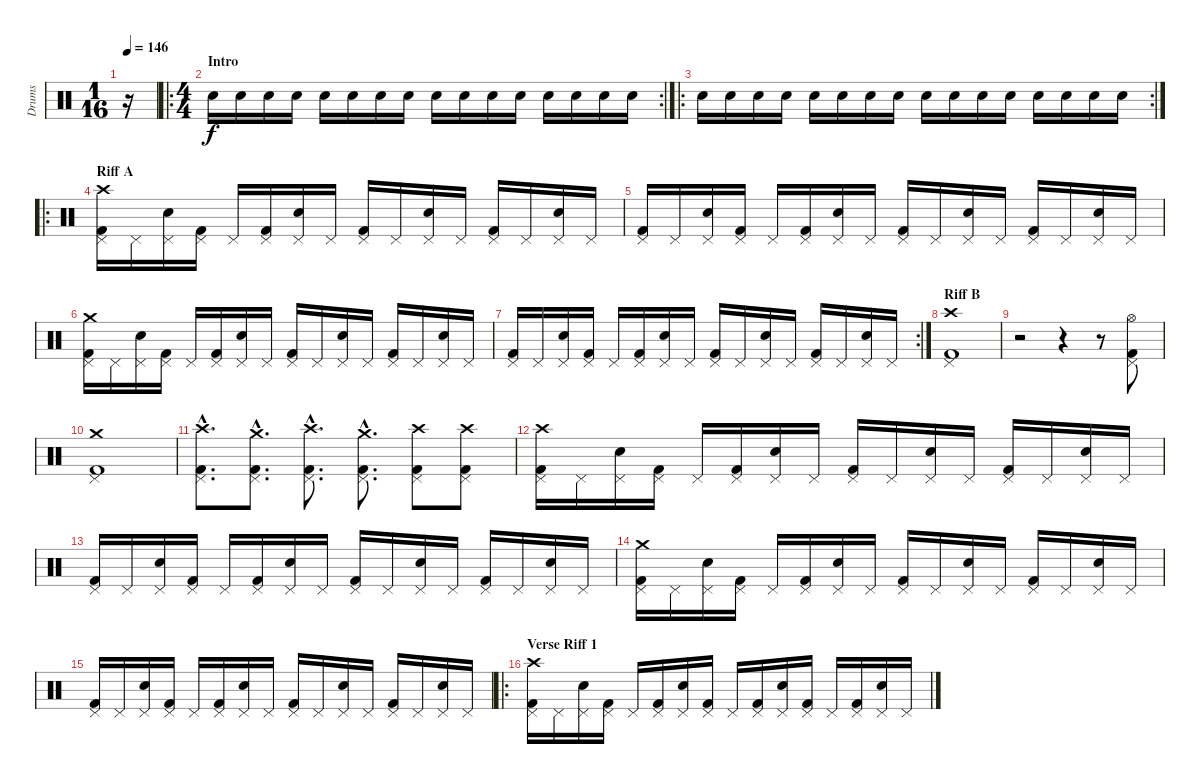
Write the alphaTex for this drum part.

\track ("Drums" "Drums") {instrument percussion}
\staff {score}
\articulation defaults
\ts (1 16)
\tempo 146
\clef neutral
\ks c
r.16{dy f} |
\ro
\rc 2
\ts (4 4)
\section ("" "Intro")
"Snare (hit) 2".16 "Snare (hit) 2".16 "Snare (hit) 2".16 "Snare (hit) 2".16 "Snare (hit) 2".16 "Snare (hit) 2".16 "Snare (hit) 2".16 "Snare (hit) 2".16 "Snare (hit) 2".16 "Snare (hit) 2".16 "Snare (hit) 2".16 "Snare (hit) 2".16 "Snare (hit) 2".16 "Snare (hit) 2".16 "Snare (hit) 2".16 "Snare (hit) 2".16 |
\ro
\rc 2 "Snare (hit) 2".16 "Snare (hit) 2".16 "Snare (hit) 2".16 "Snare (hit) 2".16 "Snare (hit) 2".16 "Snare (hit) 2".16 "Snare (hit) 2".16 "Snare (hit) 2".16 "Snare (hit) 2".16 "Snare (hit) 2".16 "Snare (hit) 2".16 "Snare (hit) 2".16 "Snare (hit) 2".16 "Snare (hit) 2".16 "Snare (hit) 2".16 "Snare (hit) 2".16
|
\ro
\section ("" "Riff A")
("Kick (hit) 2" "Pedal Hi-Hat (hit)" "Crash high (hit)").16 "Pedal Hi-Hat (hit)".16 ("Snare (hit) 2" "Pedal Hi-Hat (hit)").16 ("Kick (hit) 2" "Pedal Hi-Hat (hit)").16 "Pedal Hi-Hat (hit)".16 ("Kick (hit) 2" "Pedal Hi-Hat (hit)").16 ("Snare (hit) 2" "Pedal Hi-Hat (hit)").16 "Pedal Hi-Hat (hit)".16 ("Kick (hit) 2" "Pedal Hi-Hat (hit)").16 "Pedal Hi-Hat (hit)".16 ("Snare (hit) 2" "Pedal Hi-Hat (hit)").16 "Pedal Hi-Hat (hit)".16 ("Kick (hit) 2" "Pedal Hi-Hat (hit)").16 "Pedal Hi-Hat (hit)".16 ("Snare (hit) 2" "Pedal Hi-Hat (hit)").16 "Pedal Hi-Hat (hit)".16 |
("Kick (hit) 2" "Pedal Hi-Hat (hit)").16 "Pedal Hi-Hat (hit)".16 ("Snare (hit) 2" "Pedal Hi-Hat (hit)").16 ("Kick (hit) 2" "Pedal Hi-Hat (hit)").16 "Pedal Hi-Hat (hit)".16 ("Kick (hit) 2" "Pedal Hi-Hat (hit)").16 ("Snare (hit) 2" "Pedal Hi-Hat (hit)").16 "Pedal Hi-Hat (hit)".16 ("Kick (hit) 2" "Pedal Hi-Hat (hit)").16 "Pedal Hi-Hat (hit)".16 ("Snare (hit) 2" "Pedal Hi-Hat (hit)").16 "Pedal Hi-Hat (hit)".16 ("Kick (hit) 2" "Pedal Hi-Hat (hit)").16 "Pedal Hi-Hat (hit)".16 ("Snare (hit) 2" "Pedal Hi-Hat (hit)").16 "Pedal Hi-Hat (hit)".16 |
("Kick (hit) 2" "Pedal Hi-Hat (hit)" "Crash medium (hit)").16 "Pedal Hi-Hat (hit)".16 ("Snare (hit) 2" "Pedal Hi-Hat (hit)").16 ("Kick (hit) 2" "Pedal Hi-Hat (hit)").16 "Pedal Hi-Hat (hit)".16 ("Kick (hit) 2" "Pedal Hi-Hat (hit)").16 ("Snare (hit) 2" "Pedal Hi-Hat (hit)").16 "Pedal Hi-Hat (hit)".16 ("Kick (hit) 2" "Pedal Hi-Hat (hit)").16 "Pedal Hi-Hat (hit)".16 ("Snare (hit) 2" "Pedal Hi-Hat (hit)").16 "Pedal Hi-Hat (hit)".16 ("Kick (hit) 2" "Pedal Hi-Hat (hit)").16 "Pedal Hi-Hat (hit)".16 ("Snare (hit) 2" "Pedal Hi-Hat (hit)").16 "Pedal Hi-Hat (hit)".16 |
\rc 2
("Kick (hit) 2" "Pedal Hi-Hat (hit)").16 "Pedal Hi-Hat (hit)".16 ("Snare (hit) 2" "Pedal Hi-Hat (hit)").16 ("Kick (hit) 2" "Pedal Hi-Hat (hit)").16 "Pedal Hi-Hat (hit)".16 ("Kick (hit) 2" "Pedal Hi-Hat (hit)").16 ("Snare (hit) 2" "Pedal Hi-Hat (hit)").16 "Pedal Hi-Hat (hit)".16 ("Kick (hit) 2" "Pedal Hi-Hat (hit)").16 "Pedal Hi-Hat (hit)".16 ("Snare (hit) 2" "Pedal Hi-Hat (hit)").16 "Pedal Hi-Hat (hit)".16 ("Kick (hit) 2" "Pedal Hi-Hat (hit)").16 "Pedal Hi-Hat (hit)".16 ("Snare (hit) 2" "Pedal Hi-Hat (hit)").16 "Pedal Hi-Hat (hit)".16 |
\section ("" "Riff B")
("Kick (hit) 2" "Pedal Hi-Hat (hit)" "Crash high (hit)").1 |
r.2 r.4 r.8 ("Kick (hit) 2" "Pedal Hi-Hat (hit)" "Hi-Hat (open)").8 |
("Kick (hit) 2" "Pedal Hi-Hat (hit)" "Crash medium (hit)").1 |
("Kick (hit) 2"{hac} "Pedal Hi-Hat (hit)"{hac} "Crash high (hit)"{hac}).8{d} ("Kick (hit) 2"{hac} "Pedal Hi-Hat (hit)"{hac} "Crash medium (hit)"{hac}).8{d} ("Kick (hit) 2"{hac} "Pedal Hi-Hat (hit)"{hac} "Crash high (hit)"{hac}).8{d} ("Kick (hit) 2"{hac} "Pedal Hi-Hat (hit)"{hac} "Crash medium (hit)"{hac}).8{d} ("Kick (hit) 2" "Pedal Hi-Hat (hit)" "Crash high (hit)").8 ("Kick (hit) 2" "Pedal Hi-Hat (hit)" "Crash high (hit)").8 |
("Kick (hit) 2" "Pedal Hi-Hat (hit)" "Crash high (hit)").16 "Pedal Hi-Hat (hit)".16 ("Snare (hit) 2" "Pedal Hi-Hat (hit)").16 ("Kick (hit) 2" "Pedal Hi-Hat (hit)").16 "Pedal Hi-Hat (hit)".16 ("Kick (hit) 2" "Pedal Hi-Hat (hit)").16 ("Snare (hit) 2" "Pedal Hi-Hat (hit)").16 "Pedal Hi-Hat (hit)".16 ("Kick (hit) 2" "Pedal Hi-Hat (hit)").16 "Pedal Hi-Hat (hit)".16 ("Snare (hit) 2" "Pedal Hi-Hat (hit)").16 "Pedal Hi-Hat (hit)".16 ("Kick (hit) 2" "Pedal Hi-Hat (hit)").16 "Pedal Hi-Hat (hit)".16 ("Snare (hit) 2" "Pedal Hi-Hat (hit)").16 "Pedal Hi-Hat (hit)".16 |
("Kick (hit) 2" "Pedal Hi-Hat (hit)").16 "Pedal Hi-Hat (hit)".16 ("Snare (hit) 2" "Pedal Hi-Hat (hit)").16 ("Kick (hit) 2" "Pedal Hi-Hat (hit)").16 "Pedal Hi-Hat (hit)".16 ("Kick (hit) 2" "Pedal Hi-Hat (hit)").16 ("Snare (hit) 2" "Pedal Hi-Hat (hit)").16 "Pedal Hi-Hat (hit)".16 ("Kick (hit) 2" "Pedal Hi-Hat (hit)").16 "Pedal Hi-Hat (hit)".16 ("Snare (hit) 2" "Pedal Hi-Hat (hit)").16 "Pedal Hi-Hat (hit)".16 ("Kick (hit) 2" "Pedal Hi-Hat (hit)").16 "Pedal Hi-Hat (hit)".16 ("Snare (hit) 2" "Pedal Hi-Hat (hit)").16 "Pedal Hi-Hat (hit)".16 |
("Kick (hit) 2" "Pedal Hi-Hat (hit)" "Crash medium (hit)").16 "Pedal Hi-Hat (hit)".16 ("Snare (hit) 2" "Pedal Hi-Hat (hit)").16 ("Kick (hit) 2" "Pedal Hi-Hat (hit)").16 "Pedal Hi-Hat (hit)".16 ("Kick (hit) 2" "Pedal Hi-Hat (hit)").16 ("Snare (hit) 2" "Pedal Hi-Hat (hit)").16 "Pedal Hi-Hat (hit)".16 ("Kick (hit) 2" "Pedal Hi-Hat (hit)").16 "Pedal Hi-Hat (hit)".16 ("Snare (hit) 2" "Pedal Hi-Hat (hit)").16 "Pedal Hi-Hat (hit)".16 ("Kick (hit) 2" "Pedal Hi-Hat (hit)").16 "Pedal Hi-Hat (hit)".16 ("Snare (hit) 2" "Pedal Hi-Hat (hit)").16 "Pedal Hi-Hat (hit)".16 |
("Kick (hit) 2" "Pedal Hi-Hat (hit)").16 "Pedal Hi-Hat (hit)".16 ("Snare (hit) 2" "Pedal Hi-Hat (hit)").16 ("Kick (hit) 2" "Pedal Hi-Hat (hit)").16 "Pedal Hi-Hat (hit)".16 ("Kick (hit) 2" "Pedal Hi-Hat (hit)").16 ("Snare (hit) 2" "Pedal Hi-Hat (hit)").16 "Pedal Hi-Hat (hit)".16 ("Kick (hit) 2" "Pedal Hi-Hat (hit)").16 "Pedal Hi-Hat (hit)".16 ("Snare (hit) 2" "Pedal Hi-Hat (hit)").16 "Pedal Hi-Hat (hit)".16 ("Kick (hit) 2" "Pedal Hi-Hat (hit)").16 "Pedal Hi-Hat (hit)".16 ("Snare (hit) 2" "Pedal Hi-Hat (hit)").16 "Pedal Hi-Hat (hit)".16 |
\ro
\section ("" "Verse Riff 1")
("Kick (hit) 2" "Pedal Hi-Hat (hit)" "Crash high (hit)").16 "Pedal Hi-Hat (hit)".16 ("Snare (hit) 2" "Pedal Hi-Hat (hit)").16 ("Kick (hit) 2" "Pedal Hi-Hat (hit)").16 "Pedal Hi-Hat (hit)".16 ("Kick (hit) 2" "Pedal Hi-Hat (hit)").16 ("Snare (hit) 2" "Pedal Hi-Hat (hit)").16 ("Kick (hit) 2" "Pedal Hi-Hat (hit)").16 "Pedal Hi-Hat (hit)".16 ("Kick (hit) 2" "Pedal Hi-Hat (hit)").16 ("Snare (hit) 2" "Pedal Hi-Hat (hit)").16 ("Kick (hit) 2" "Pedal Hi-Hat (hit)").16 "Pedal Hi-Hat (hit)".16 ("Kick (hit) 2" "Pedal Hi-Hat (hit)").16 ("Snare (hit) 2" "Pedal Hi-Hat (hit)").16 "Pedal Hi-Hat (hit)".16
